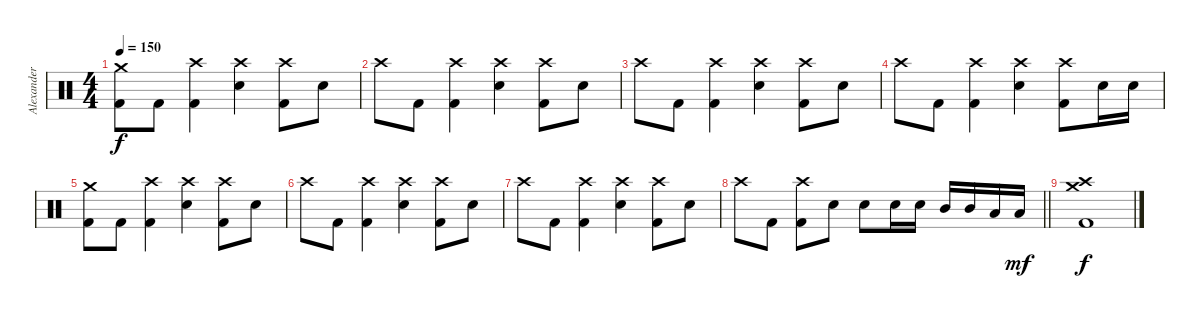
\track ("Alexander Sveningsson" "Alexander ") {instrument percussion}
\staff {score}
\articulation defaults
\ts (4 4)
\tempo 150
\clef neutral
\ks c
("Crash medium (hit)" "Kick (hit) 2").8{dy f} "Kick (hit) 2".8 ("Crash high (hit)" "Kick (hit) 2").4 ("Crash high (hit)" "Electric Snare (hit)").4 ("Crash high (hit)" "Kick (hit) 2").8 "Electric Snare (hit)".8 |
"Crash high (hit)".8 "Kick (hit) 2".8 ("Crash high (hit)" "Kick (hit) 2").4 ("Crash high (hit)" "Electric Snare (hit)").4 ("Crash high (hit)" "Kick (hit) 2").8 "Electric Snare (hit)".8 |
"Crash high (hit)".8 "Kick (hit) 2".8 ("Crash high (hit)" "Kick (hit) 2").4 ("Crash high (hit)" "Electric Snare (hit)").4 ("Crash high (hit)" "Kick (hit) 2").8 "Electric Snare (hit)".8 |
"Crash high (hit)".8 "Kick (hit) 2".8 ("Crash high (hit)" "Kick (hit) 2").4 ("Crash high (hit)" "Electric Snare (hit)").4 ("Crash high (hit)" "Kick (hit) 2").8 "Electric Snare (hit)".16 "Electric Snare (hit)".16 |
("Crash medium (hit)" "Kick (hit) 2").8 "Kick (hit) 2".8 ("Crash high (hit)" "Kick (hit) 2").4 ("Crash high (hit)" "Electric Snare (hit)").4 ("Crash high (hit)" "Kick (hit) 2").8 "Electric Snare (hit)".8 |
"Crash high (hit)".8 "Kick (hit) 2".8 ("Crash high (hit)" "Kick (hit) 2").4 ("Crash high (hit)" "Electric Snare (hit)").4 ("Crash high (hit)" "Kick (hit) 2").8 "Electric Snare (hit)".8 |
"Crash high (hit)".8 "Kick (hit) 2".8 ("Crash high (hit)" "Kick (hit) 2").4 ("Crash high (hit)" "Electric Snare (hit)").4 ("Crash high (hit)" "Kick (hit) 2").8 "Electric Snare (hit)".8 |
\barLineRight lightlight "Crash high (hit)".8 "Kick (hit) 2".8
("Crash high (hit)" "Kick (hit) 2").8 "Electric Snare (hit)".8 "Electric Snare (hit)".8 "Electric Snare (hit)".16 "Electric Snare (hit)".16 "Mid Tom (hit)".16 "Mid Tom (hit)".16 "Low Tom (hit)".16 "Low Tom (hit)".16{dy mf} |
("Crash medium (hit)" "Crash high (hit)" "Kick (hit) 2").1{dy f}
